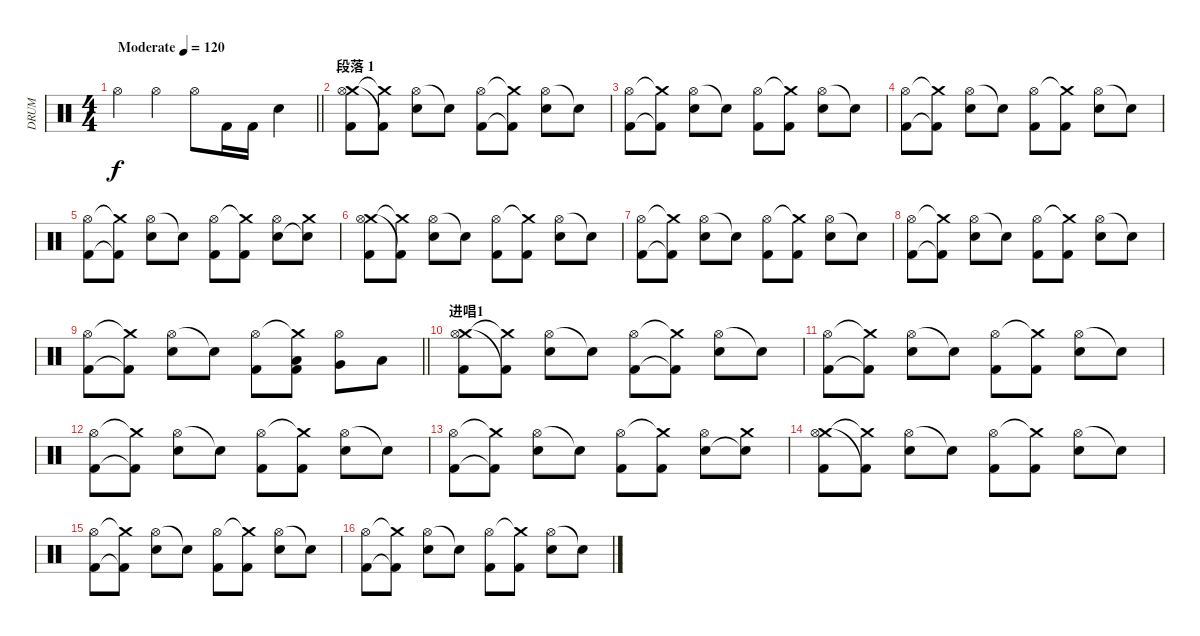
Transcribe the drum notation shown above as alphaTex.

\track ("DRUM" "DRUM") {instrument percussion}
\staff {score}
\articulation defaults
\ts (4 4)
\tempo (120 "Moderate")
\clef neutral
\barLineRight lightlight
\ks c "Hi-Hat (open)".4{dy f} "Hi-Hat (open)".4 "Hi-Hat (open)".8 "Kick (hit) 2".16 "Kick (hit) 2".16 "Electric Snare (hit)".4
|
\section ("" "段落 1")
("Crash medium (hit)" "Hi-Hat (open)" "Kick (hit) 2").8 ("Crash medium (hit)"{t} "Kick (hit) 2"{t}).8 ("Hi-Hat (open)" "Electric Snare (hit)").8 "Electric Snare (hit)"{t}.8 ("Hi-Hat (open)" "Kick (hit) 2").8 ("Crash medium (hit)"{t} "Kick (hit) 2"{t}).8 ("Hi-Hat (open)" "Electric Snare (hit)").8 "Electric Snare (hit)"{t}.8 |
("Hi-Hat (open)" "Kick (hit) 2").8 ("Crash medium (hit)"{t} "Kick (hit) 2"{t}).8 ("Hi-Hat (open)" "Electric Snare (hit)").8 "Electric Snare (hit)"{t}.8 ("Hi-Hat (open)" "Kick (hit) 2").8 ("Crash medium (hit)"{t} "Kick (hit) 2").8 ("Hi-Hat (open)" "Electric Snare (hit)").8 "Electric Snare (hit)"{t}.8 |
("Hi-Hat (open)" "Kick (hit) 2").8 ("Crash medium (hit)"{t} "Kick (hit) 2"{t}).8 ("Hi-Hat (open)" "Electric Snare (hit)").8 "Electric Snare (hit)"{t}.8 ("Hi-Hat (open)" "Kick (hit) 2").8 ("Crash medium (hit)"{t} "Kick (hit) 2").8 ("Hi-Hat (open)" "Electric Snare (hit)").8 "Electric Snare (hit)"{t}.8 |
("Hi-Hat (open)" "Kick (hit) 2").8 ("Crash medium (hit)"{t} "Kick (hit) 2"{t}).8 ("Hi-Hat (open)" "Electric Snare (hit)").8 "Electric Snare (hit)"{t}.8 ("Hi-Hat (open)" "Kick (hit) 2").8 ("Crash medium (hit)"{t} "Kick (hit) 2").8 ("Hi-Hat (open)" "Electric Snare (hit)").8 ("Crash medium (hit)" "Electric Snare (hit)"{t}).8 |
("Crash medium (hit)" "Hi-Hat (open)" "Kick (hit) 2").8 ("Crash medium (hit)"{t} "Kick (hit) 2"{t}).8 ("Hi-Hat (open)" "Electric Snare (hit)").8 "Electric Snare (hit)"{t}.8 ("Hi-Hat (open)" "Kick (hit) 2").8 ("Crash medium (hit)"{t} "Kick (hit) 2").8 ("Hi-Hat (open)" "Electric Snare (hit)").8 "Electric Snare (hit)"{t}.8 |
("Hi-Hat (open)" "Kick (hit) 2").8 ("Crash medium (hit)"{t} "Kick (hit) 2"{t}).8 ("Hi-Hat (open)" "Electric Snare (hit)").8 "Electric Snare (hit)"{t}.8 ("Hi-Hat (open)" "Kick (hit) 2").8 ("Crash medium (hit)"{t} "Kick (hit) 2").8 ("Hi-Hat (open)" "Electric Snare (hit)").8 "Electric Snare (hit)"{t}.8 |
("Hi-Hat (open)" "Kick (hit) 2").8 ("Crash medium (hit)"{t} "Kick (hit) 2"{t}).8 ("Hi-Hat (open)" "Electric Snare (hit)").8 "Electric Snare (hit)"{t}.8 ("Hi-Hat (open)" "Kick (hit) 2").8 ("Crash medium (hit)"{t} "Kick (hit) 2").8 ("Hi-Hat (open)" "Electric Snare (hit)").8 "Electric Snare (hit)"{t}.8 |
\barLineRight lightlight
("Hi-Hat (open)" "Kick (hit) 2").8 ("Crash medium (hit)"{t} "Kick (hit) 2"{t}).8 ("Hi-Hat (open)" "Electric Snare (hit)").8 "Electric Snare (hit)"{t}.8 ("Hi-Hat (open)" "Kick (hit) 2").8 ("Crash medium (hit)"{t} "Low Tom (hit)" "Kick (hit) 2").8 ("Hi-Hat (open)" "Very Low Tom (hit)").8 "Low Floor Tom (hit)".8 |
\section ("" "进唱1")
("Crash medium (hit)" "Hi-Hat (open)" "Kick (hit) 2").8 ("Crash medium (hit)"{t} "Kick (hit) 2"{t}).8 ("Hi-Hat (open)" "Electric Snare (hit)").8 "Electric Snare (hit)"{t}.8 ("Hi-Hat (open)" "Kick (hit) 2").8 ("Crash medium (hit)"{t} "Kick (hit) 2"{t}).8 ("Hi-Hat (open)" "Electric Snare (hit)").8 "Electric Snare (hit)"{t}.8 |
("Hi-Hat (open)" "Kick (hit) 2").8 ("Crash medium (hit)"{t} "Kick (hit) 2"{t}).8 ("Hi-Hat (open)" "Electric Snare (hit)").8 "Electric Snare (hit)"{t}.8 ("Hi-Hat (open)" "Kick (hit) 2").8 ("Crash medium (hit)"{t} "Kick (hit) 2").8 ("Hi-Hat (open)" "Electric Snare (hit)").8 "Electric Snare (hit)"{t}.8 |
("Hi-Hat (open)" "Kick (hit) 2").8 ("Crash medium (hit)"{t} "Kick (hit) 2"{t}).8 ("Hi-Hat (open)" "Electric Snare (hit)").8 "Electric Snare (hit)"{t}.8 ("Hi-Hat (open)" "Kick (hit) 2").8 ("Crash medium (hit)"{t} "Kick (hit) 2").8 ("Hi-Hat (open)" "Electric Snare (hit)").8 "Electric Snare (hit)"{t}.8 |
("Hi-Hat (open)" "Kick (hit) 2").8 ("Crash medium (hit)"{t} "Kick (hit) 2"{t}).8 ("Hi-Hat (open)" "Electric Snare (hit)").8 "Electric Snare (hit)"{t}.8 ("Hi-Hat (open)" "Kick (hit) 2").8 ("Crash medium (hit)"{t} "Kick (hit) 2").8 ("Hi-Hat (open)" "Electric Snare (hit)").8 ("Crash medium (hit)" "Electric Snare (hit)"{t}).8 |
("Crash medium (hit)" "Hi-Hat (open)" "Kick (hit) 2").8 ("Crash medium (hit)"{t} "Kick (hit) 2"{t}).8 ("Hi-Hat (open)" "Electric Snare (hit)").8 "Electric Snare (hit)"{t}.8 ("Hi-Hat (open)" "Kick (hit) 2").8 ("Crash medium (hit)"{t} "Kick (hit) 2").8 ("Hi-Hat (open)" "Electric Snare (hit)").8 "Electric Snare (hit)"{t}.8 |
("Hi-Hat (open)" "Kick (hit) 2").8 ("Crash medium (hit)"{t} "Kick (hit) 2"{t}).8 ("Hi-Hat (open)" "Electric Snare (hit)").8 "Electric Snare (hit)"{t}.8 ("Hi-Hat (open)" "Kick (hit) 2").8 ("Crash medium (hit)"{t} "Kick (hit) 2").8 ("Hi-Hat (open)" "Electric Snare (hit)").8 "Electric Snare (hit)"{t}.8 |
("Hi-Hat (open)" "Kick (hit) 2").8 ("Crash medium (hit)"{t} "Kick (hit) 2"{t}).8 ("Hi-Hat (open)" "Electric Snare (hit)").8 "Electric Snare (hit)"{t}.8 ("Hi-Hat (open)" "Kick (hit) 2").8 ("Crash medium (hit)"{t} "Kick (hit) 2").8 ("Hi-Hat (open)" "Electric Snare (hit)").8 "Electric Snare (hit)"{t}.8
